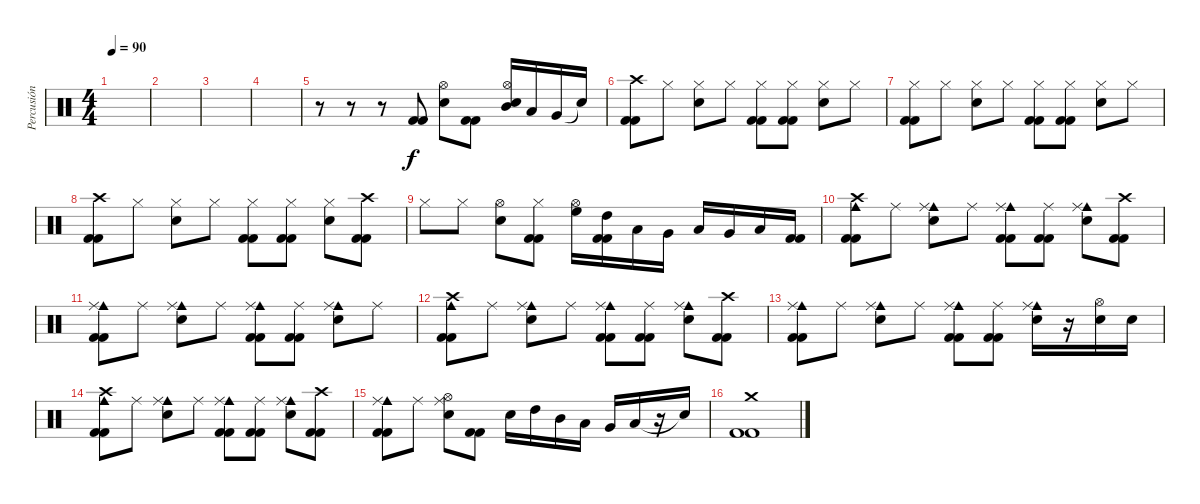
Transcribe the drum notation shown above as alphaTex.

\track ("Percusión" "Percusión") {instrument percussion}
\staff {score}
\articulation defaults
\ts (4 4)
\tempo 90
\clef neutral
\ks c
|
|
|
|
r.8 r.8 r.8 ("Kick (hit) 2" "Kick (hit) 2").8 ("Electric Snare (hit)" "Hi-Hat (open)").8 ("Kick (hit) 2" "Kick (hit) 2").8 ("Electric Snare (hit)" "Mid Tom (hit)" "Hi-Hat (open)").16 "Low Tom (hit)".16 "Very Low Tom (hit)".16 "Snare (hit)"{t}.16 |
("Kick (hit) 2" "Crash high (hit)" "Kick (hit) 2").8 "Hi-Hat (closed)".8 ("Electric Snare (hit)" "Hi-Hat (closed)").8 "Hi-Hat (closed)".8 ("Kick (hit) 2" "Hi-Hat (closed)" "Kick (hit) 2").8 ("Kick (hit) 2" "Hi-Hat (closed)" "Kick (hit) 2").8 ("Electric Snare (hit)" "Hi-Hat (closed)").8 "Hi-Hat (closed)".8 |
("Kick (hit) 2" "Hi-Hat (closed)" "Kick (hit) 2").8 "Hi-Hat (closed)".8 ("Electric Snare (hit)" "Hi-Hat (closed)").8 "Hi-Hat (closed)".8 ("Kick (hit) 2" "Hi-Hat (closed)" "Kick (hit) 2").8 ("Kick (hit) 2" "Hi-Hat (closed)" "Kick (hit) 2").8 ("Electric Snare (hit)" "Hi-Hat (closed)").8 "Hi-Hat (closed)".8 |
("Kick (hit) 2" "Crash high (hit)" "Kick (hit) 2").8 "Hi-Hat (closed)".8 ("Electric Snare (hit)" "Hi-Hat (closed)").8 "Hi-Hat (closed)".8 ("Kick (hit) 2" "Hi-Hat (closed)" "Kick (hit) 2").8 ("Kick (hit) 2" "Hi-Hat (closed)" "Kick (hit) 2").8 ("Electric Snare (hit)" "Hi-Hat (closed)").8 ("Kick (hit) 2" "Crash high (hit)" "Kick (hit) 2").8 |
"Hi-Hat (closed)".8 "Hi-Hat (closed)".8 ("Electric Snare (hit)" "Hi-Hat (open)").8 ("Kick (hit) 2" "Hi-Hat (closed)" "Kick (hit) 2").8 ("High Floor Tom (hit)" "Hi-Hat (open)").16 ("Kick (hit) 2" "High Tom (hit)" "Kick (hit) 2").16 "Low Tom (hit)".16 "Very Low Tom (hit)".16 "Low Tom (hit)".16 "Very Low Tom (hit)".16 "Low Floor Tom (hit)".16 ("Kick (hit) 2" "Kick (hit) 2").16 |
("Kick (hit) 2" "Cowbell medium (hit)" "Crash high (hit)" "Kick (hit) 2").8 "Ride (middle)".8 ("Electric Snare (hit)" "Cowbell medium (hit)" "Ride (middle)").8 "Ride (middle)".8 ("Kick (hit) 2" "Cowbell medium (hit)" "Ride (middle)" "Kick (hit) 2").8 ("Kick (hit) 2" "Ride (middle)" "Kick (hit) 2").8 ("Electric Snare (hit)" "Cowbell medium (hit)" "Ride (middle)").8 ("Kick (hit) 2" "Crash high (hit)" "Kick (hit) 2").8 |
("Kick (hit) 2" "Cowbell medium (hit)" "Ride (middle)" "Kick (hit) 2").8 "Ride (middle)".8 ("Electric Snare (hit)" "Cowbell medium (hit)" "Ride (middle)").8 "Ride (middle)".8 ("Kick (hit) 2" "Cowbell medium (hit)" "Ride (middle)" "Kick (hit) 2").8 ("Kick (hit) 2" "Ride (middle)" "Kick (hit) 2").8 ("Electric Snare (hit)" "Cowbell medium (hit)" "Ride (middle)").8 "Ride (middle)".8 |
("Kick (hit) 2" "Cowbell medium (hit)" "Crash high (hit)" "Kick (hit) 2").8 "Ride (middle)".8 ("Electric Snare (hit)" "Cowbell medium (hit)" "Ride (middle)").8 "Ride (middle)".8 ("Kick (hit) 2" "Cowbell medium (hit)" "Ride (middle)" "Kick (hit) 2").8 ("Kick (hit) 2" "Ride (middle)" "Kick (hit) 2").8 ("Electric Snare (hit)" "Cowbell medium (hit)" "Ride (middle)").8 ("Kick (hit) 2" "Crash high (hit)" "Kick (hit) 2").8 |
("Kick (hit) 2" "Cowbell medium (hit)" "Ride (middle)" "Kick (hit) 2").8 "Ride (middle)".8 ("Electric Snare (hit)" "Cowbell medium (hit)" "Ride (middle)").8 "Ride (middle)".8 ("Kick (hit) 2" "Cowbell medium (hit)" "Ride (middle)" "Kick (hit) 2").8 ("Kick (hit) 2" "Ride (middle)" "Kick (hit) 2").8 ("Electric Snare (hit)" "Cowbell medium (hit)" "Ride (middle)").16 r.16 ("Electric Snare (hit)" "Hi-Hat (open)").16 "Electric Snare (hit)".16 |
("Kick (hit) 2" "Cowbell medium (hit)" "Crash high (hit)" "Kick (hit) 2").8 "Ride (middle)".8 ("Electric Snare (hit)" "Cowbell medium (hit)" "Ride (middle)").8 "Ride (middle)".8 ("Kick (hit) 2" "Cowbell medium (hit)" "Ride (middle)" "Kick (hit) 2").8 ("Kick (hit) 2" "Ride (middle)" "Kick (hit) 2").8 ("Electric Snare (hit)" "Cowbell medium (hit)" "Ride (middle)").8 ("Kick (hit) 2" "Crash high (hit)" "Kick (hit) 2").8 |
("Kick (hit) 2" "Cowbell medium (hit)" "Ride (middle)" "Kick (hit) 2").8 "Ride (middle)".8 ("Electric Snare (hit)" "Hi-Hat (open)" "Ride (middle)").8 ("Kick (hit) 2" "Kick (hit) 2").8 "Electric Snare (hit)".16 "High Tom (hit)".16 "Mid Tom (hit)".16 "Low Tom (hit)".16 "Very Low Tom (hit)".16 "Low Floor Tom (hit)".16 r.16 "Snare (hit)"{t}.16 |
("Kick (hit) 2" "Crash medium (hit)" "Kick (hit) 2").1
